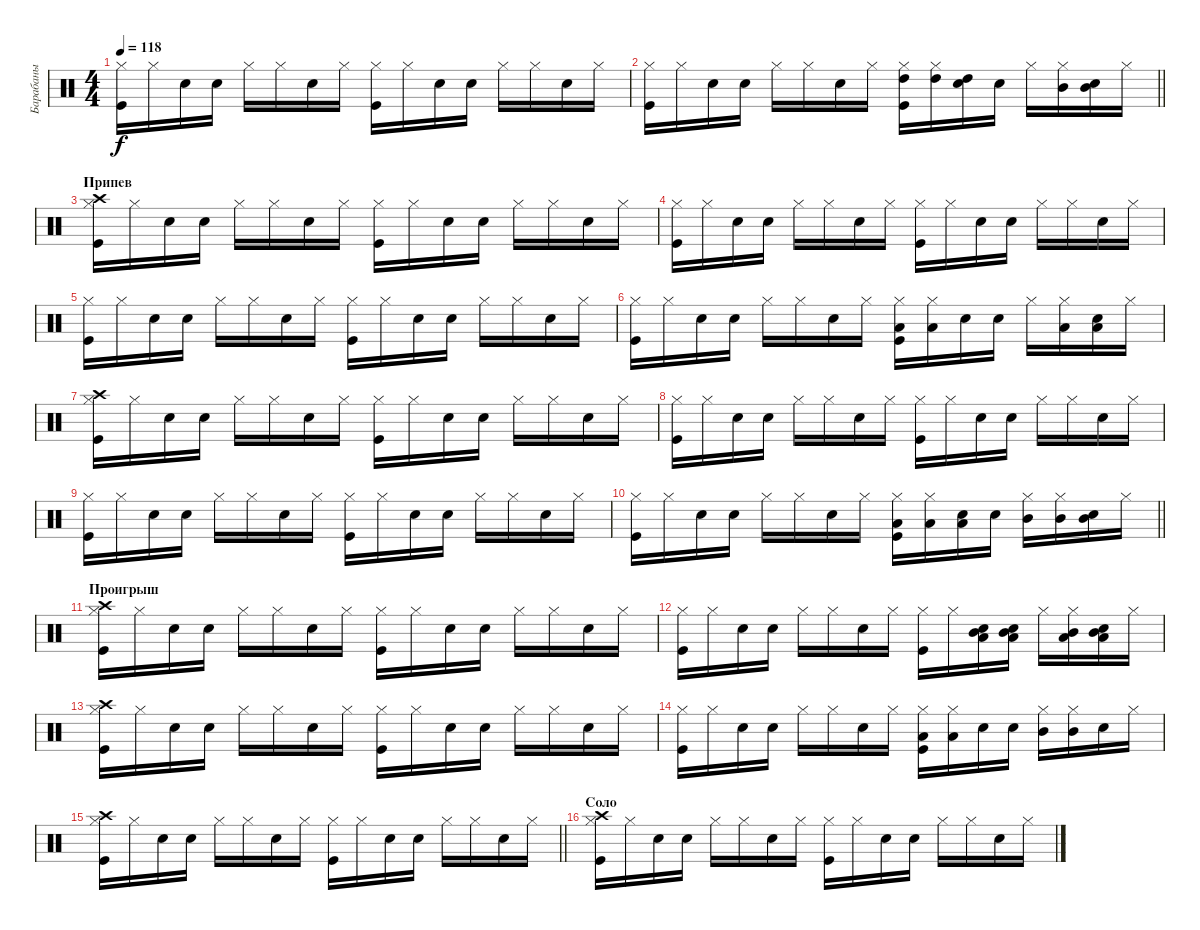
\track ("Барабаны" "Барабаны") {instrument percussion}
\staff {score}
\articulation defaults
\ts (4 4)
\tempo 118
\clef neutral
\ks c
("Kick (hit)" "Hi-Hat (closed)").16{dy f} "Hi-Hat (closed)".16 "Snare (hit) 2".16 "Snare (hit) 2".16 "Hi-Hat (closed)".16 "Hi-Hat (closed)".16 "Snare (hit) 2".16 "Hi-Hat (closed)".16 ("Kick (hit)" "Hi-Hat (closed)").16 "Hi-Hat (closed)".16 "Snare (hit) 2".16 "Snare (hit) 2".16 "Hi-Hat (closed)".16 "Hi-Hat (closed)".16 "Snare (hit) 2".16 "Hi-Hat (closed)".16 |
\barLineRight lightlight
("Kick (hit)" "Hi-Hat (closed)").16 "Hi-Hat (closed)".16 "Snare (hit) 2".16 "Snare (hit) 2".16 "Hi-Hat (closed)".16 "Hi-Hat (closed)".16 "Snare (hit) 2".16 "Hi-Hat (closed)".16 ("Kick (hit)" "Hi-Hat (closed)" "High Tom (hit)").16 ("Hi-Hat (closed)" "High Tom (hit)").16 ("Snare (hit) 2" "High Tom (hit)").16 "Snare (hit) 2".16 "Hi-Hat (closed)".16 ("Hi-Hat (closed)" "Mid Tom (hit)").16 ("Snare (hit) 2" "Mid Tom (hit)").16 "Hi-Hat (closed)".16 |
\section ("" "Припев")
("Kick (hit)" "Hi-Hat (closed)" "Crash high (hit)").16 "Hi-Hat (closed)".16 "Snare (hit) 2".16 "Snare (hit) 2".16 "Hi-Hat (closed)".16 "Hi-Hat (closed)".16 "Snare (hit) 2".16 "Hi-Hat (closed)".16 ("Kick (hit)" "Hi-Hat (closed)").16 "Hi-Hat (closed)".16 "Snare (hit) 2".16 "Snare (hit) 2".16 "Hi-Hat (closed)".16 "Hi-Hat (closed)".16 "Snare (hit) 2".16 "Hi-Hat (closed)".16 |
("Kick (hit)" "Hi-Hat (closed)").16 "Hi-Hat (closed)".16 "Snare (hit) 2".16 "Snare (hit) 2".16 "Hi-Hat (closed)".16 "Hi-Hat (closed)".16 "Snare (hit) 2".16 "Hi-Hat (closed)".16 ("Kick (hit)" "Hi-Hat (closed)").16 "Hi-Hat (closed)".16 "Snare (hit) 2".16 "Snare (hit) 2".16 "Hi-Hat (closed)".16 "Hi-Hat (closed)".16 "Snare (hit) 2".16 "Hi-Hat (closed)".16 |
("Kick (hit)" "Hi-Hat (closed)").16 "Hi-Hat (closed)".16 "Snare (hit) 2".16 "Snare (hit) 2".16 "Hi-Hat (closed)".16 "Hi-Hat (closed)".16 "Snare (hit) 2".16 "Hi-Hat (closed)".16 ("Kick (hit)" "Hi-Hat (closed)").16 "Hi-Hat (closed)".16 "Snare (hit) 2".16 "Snare (hit) 2".16 "Hi-Hat (closed)".16 "Hi-Hat (closed)".16 "Snare (hit) 2".16 "Hi-Hat (closed)".16 |
("Kick (hit)" "Hi-Hat (closed)").16 "Hi-Hat (closed)".16 "Snare (hit) 2".16 "Snare (hit) 2".16 "Hi-Hat (closed)".16 "Hi-Hat (closed)".16 "Snare (hit) 2".16 "Hi-Hat (closed)".16 ("Kick (hit)" "Hi-Hat (closed)" "Low Tom (hit)").16 ("Hi-Hat (closed)" "Low Tom (hit)").16 "Snare (hit) 2".16 "Snare (hit) 2".16 "Hi-Hat (closed)".16 ("Hi-Hat (closed)" "Low Floor Tom (hit)").16 ("Snare (hit) 2" "Low Floor Tom (hit)").16 "Hi-Hat (closed)".16 |
("Kick (hit)" "Hi-Hat (closed)" "Crash high (hit)").16 "Hi-Hat (closed)".16 "Snare (hit) 2".16 "Snare (hit) 2".16 "Hi-Hat (closed)".16 "Hi-Hat (closed)".16 "Snare (hit) 2".16 "Hi-Hat (closed)".16 ("Kick (hit)" "Hi-Hat (closed)").16 "Hi-Hat (closed)".16 "Snare (hit) 2".16 "Snare (hit) 2".16 "Hi-Hat (closed)".16 "Hi-Hat (closed)".16 "Snare (hit) 2".16 "Hi-Hat (closed)".16 |
("Kick (hit)" "Hi-Hat (closed)").16 "Hi-Hat (closed)".16 "Snare (hit) 2".16 "Snare (hit) 2".16 "Hi-Hat (closed)".16 "Hi-Hat (closed)".16 "Snare (hit) 2".16 "Hi-Hat (closed)".16 ("Kick (hit)" "Hi-Hat (closed)").16 "Hi-Hat (closed)".16 "Snare (hit) 2".16 "Snare (hit) 2".16 "Hi-Hat (closed)".16 "Hi-Hat (closed)".16 "Snare (hit) 2".16 "Hi-Hat (closed)".16 |
("Kick (hit)" "Hi-Hat (closed)").16 "Hi-Hat (closed)".16 "Snare (hit) 2".16 "Snare (hit) 2".16 "Hi-Hat (closed)".16 "Hi-Hat (closed)".16 "Snare (hit) 2".16 "Hi-Hat (closed)".16 ("Kick (hit)" "Hi-Hat (closed)").16 "Hi-Hat (closed)".16 "Snare (hit) 2".16 "Snare (hit) 2".16 "Hi-Hat (closed)".16 "Hi-Hat (closed)".16 "Snare (hit) 2".16 "Hi-Hat (closed)".16 |
\barLineRight lightlight
("Kick (hit)" "Hi-Hat (closed)").16 "Hi-Hat (closed)".16 "Snare (hit) 2".16 "Snare (hit) 2".16 "Hi-Hat (closed)".16 "Hi-Hat (closed)".16 "Snare (hit) 2".16 "Hi-Hat (closed)".16 ("Kick (hit)" "Hi-Hat (closed)" "Low Tom (hit)").16 ("Hi-Hat (closed)" "Low Tom (hit)").16 ("Snare (hit) 2" "Low Tom (hit)").16 "Snare (hit) 2".16 ("Hi-Hat (closed)" "Mid Tom (hit)").16 ("Hi-Hat (closed)" "Mid Tom (hit)").16 ("Snare (hit) 2" "Mid Tom (hit)").16 "Hi-Hat (closed)".16 |
\section ("" "Проигрыш")
("Kick (hit)" "Hi-Hat (closed)" "Crash high (hit)").16 "Hi-Hat (closed)".16 "Snare (hit) 2".16 "Snare (hit) 2".16 "Hi-Hat (closed)".16 "Hi-Hat (closed)".16 "Snare (hit) 2".16 "Hi-Hat (closed)".16 ("Kick (hit)" "Hi-Hat (closed)").16 "Hi-Hat (closed)".16 "Snare (hit) 2".16 "Snare (hit) 2".16 "Hi-Hat (closed)".16 "Hi-Hat (closed)".16 "Snare (hit) 2".16 "Hi-Hat (closed)".16 |
("Kick (hit)" "Hi-Hat (closed)").16 "Hi-Hat (closed)".16 "Snare (hit) 2".16 "Snare (hit) 2".16 "Hi-Hat (closed)".16 "Hi-Hat (closed)".16 "Snare (hit) 2".16 "Hi-Hat (closed)".16 ("Kick (hit)" "Hi-Hat (closed)").16 "Hi-Hat (closed)".16 ("Snare (hit) 2" "Low Tom (hit)" "Mid Tom (hit)").16 ("Snare (hit) 2" "Low Tom (hit)" "Mid Tom (hit)").16 "Hi-Hat (closed)".16 ("Hi-Hat (closed)" "Low Tom (hit)" "Mid Tom (hit)").16 ("Snare (hit) 2" "Low Tom (hit)" "Mid Tom (hit)").16 "Hi-Hat (closed)".16 |
("Kick (hit)" "Hi-Hat (closed)" "Crash high (hit)").16 "Hi-Hat (closed)".16 "Snare (hit) 2".16 "Snare (hit) 2".16 "Hi-Hat (closed)".16 "Hi-Hat (closed)".16 "Snare (hit) 2".16 "Hi-Hat (closed)".16 ("Kick (hit)" "Hi-Hat (closed)").16 "Hi-Hat (closed)".16 "Snare (hit) 2".16 "Snare (hit) 2".16 "Hi-Hat (closed)".16 "Hi-Hat (closed)".16 "Snare (hit) 2".16 "Hi-Hat (closed)".16 |
("Kick (hit)" "Hi-Hat (closed)").16 "Hi-Hat (closed)".16 "Snare (hit) 2".16 "Snare (hit) 2".16 "Hi-Hat (closed)".16 "Hi-Hat (closed)".16 "Snare (hit) 2".16 "Hi-Hat (closed)".16 ("Kick (hit)" "Hi-Hat (closed)" "Low Tom (hit)").16 ("Hi-Hat (closed)" "Low Tom (hit)").16 "Snare (hit) 2".16 "Snare (hit) 2".16 ("Hi-Hat (closed)" "Mid Tom (hit)").16 ("Hi-Hat (closed)" "Mid Tom (hit)").16 "Snare (hit) 2".16 "Hi-Hat (closed)".16 |
\barLineRight lightlight
("Kick (hit)" "Hi-Hat (closed)" "Crash high (hit)").16 "Hi-Hat (closed)".16 "Snare (hit) 2".16 "Snare (hit) 2".16 "Hi-Hat (closed)".16 "Hi-Hat (closed)".16 "Snare (hit) 2".16 "Hi-Hat (closed)".16 ("Kick (hit)" "Hi-Hat (closed)").16 "Hi-Hat (closed)".16 "Snare (hit) 2".16 "Snare (hit) 2".16 "Hi-Hat (closed)".16 "Hi-Hat (closed)".16 "Snare (hit) 2".16 "Hi-Hat (closed)".16 |
\section ("" "Соло")
("Kick (hit)" "Hi-Hat (closed)" "Crash high (hit)").16 "Hi-Hat (closed)".16 "Snare (hit) 2".16 "Snare (hit) 2".16 "Hi-Hat (closed)".16 "Hi-Hat (closed)".16 "Snare (hit) 2".16 "Hi-Hat (closed)".16 ("Kick (hit)" "Hi-Hat (closed)").16 "Hi-Hat (closed)".16 "Snare (hit) 2".16 "Snare (hit) 2".16 "Hi-Hat (closed)".16 "Hi-Hat (closed)".16 "Snare (hit) 2".16 "Hi-Hat (closed)".16
